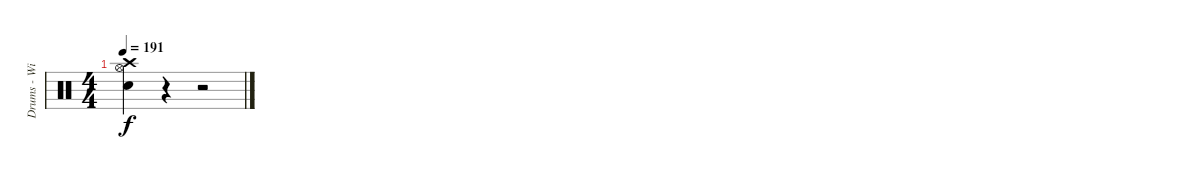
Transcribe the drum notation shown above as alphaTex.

\track ("Drums - Willie Buchan" "Drums - Wi") {instrument percussion}
\staff {score}
\articulation defaults
\ts (4 4)
\tempo 191
\clef neutral
\ks c
("Snare (hit) 2" "Hi-Hat (open)" "Crash high (hit)").4{dy f} r.4 r.2
